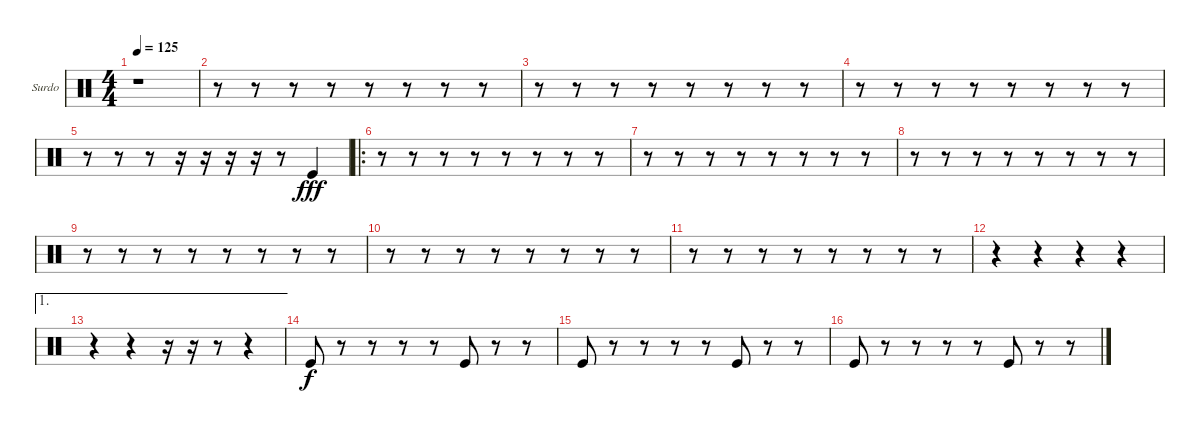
\bracketExtendMode groupsimilarinstruments
\firstSystemTrackNameOrientation horizontal
\otherSystemsTrackNameOrientation horizontal
\track ("Surdo" "Surdo") {instrument percussion}
\staff {score}
\articulation defaults
\ts (4 4)
\tempo 125
\clef neutral
\ks c
r.1{dy fff} |
r.8 r.8 r.8 r.8 r.8 r.8 r.8 r.8 |
r.8 r.8 r.8 r.8 r.8 r.8 r.8 r.8 |
r.8 r.8 r.8 r.8 r.8 r.8 r.8 r.8 |
r.8 r.8 r.8 r.16 r.16 r.16 r.16 r.8 "Kick (hit)".4 |
\ro
r.8 r.8 r.8 r.8 r.8 r.8 r.8 r.8 |
r.8 r.8 r.8 r.8 r.8 r.8 r.8 r.8 |
r.8 r.8 r.8 r.8 r.8 r.8 r.8 r.8 |
r.8 r.8 r.8 r.8 r.8 r.8 r.8 r.8 |
r.8 r.8 r.8 r.8 r.8 r.8 r.8 r.8 |
r.8 r.8 r.8 r.8 r.8 r.8 r.8 r.8 |
r.4 r.4 r.4 r.4 |
\ae 1
r.4 r.4 r.16 r.16 r.8 r.4 |
"Kick (hit)".8{dy f} r.8 r.8 r.8 r.8 "Kick (hit)".8 r.8 r.8 |
"Kick (hit)".8 r.8 r.8 r.8 r.8 "Kick (hit)".8 r.8 r.8 |
"Kick (hit)".8 r.8 r.8 r.8 r.8 "Kick (hit)".8 r.8 r.8
